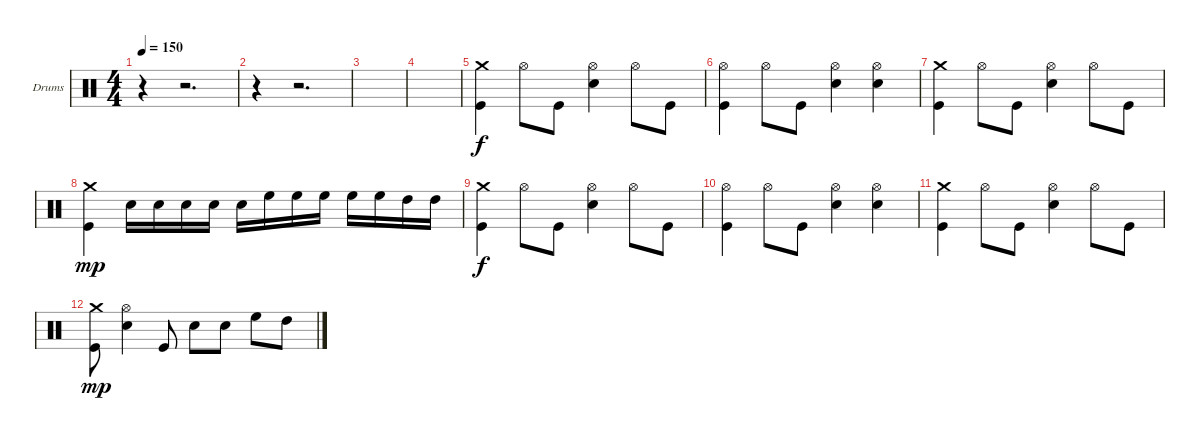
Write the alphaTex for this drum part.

\bracketExtendMode groupsimilarinstruments
\firstSystemTrackNameOrientation horizontal
\otherSystemsTrackNameOrientation horizontal
\track ("Drumkit" "Drums") {instrument percussion}
\staff {score}
\articulation defaults
\ts (4 4)
\tempo 150
\clef neutral
\ks c
r.4{dy f} r.2{d} |
r.4 r.2{d} |
|
|
("Crash medium (hit)" "Kick (hit)").4 "Hi-Hat (open)".8 "Kick (hit)".8 ("Hi-Hat (open)" "Snare (hit) 2").4 "Hi-Hat (open)".8 "Kick (hit)".8 |
("Hi-Hat (open)" "Kick (hit)").4 "Hi-Hat (open)".8 "Kick (hit)".8 ("Hi-Hat (open)" "Snare (hit) 2").4 ("Hi-Hat (open)" "Snare (hit) 2").4 |
("Crash medium (hit)" "Kick (hit)").4 "Hi-Hat (open)".8 "Kick (hit)".8 ("Hi-Hat (open)" "Snare (hit) 2").4 "Hi-Hat (open)".8 "Kick (hit)".8 |
("Crash medium (hit)" "Kick (hit)").4{dy mp} "Snare (hit) 2".16 "Snare (hit) 2".16 "Snare (hit) 2".16 "Snare (hit) 2".16 "Snare (hit) 2".16 "High Floor Tom (hit)".16 "High Floor Tom (hit)".16 "High Floor Tom (hit)".16 "High Floor Tom (hit)".16 "High Floor Tom (hit)".16 "High Tom (hit)".16 "High Tom (hit)".16 |
("Crash medium (hit)" "Kick (hit)").4{dy f} "Hi-Hat (open)".8 "Kick (hit)".8 ("Hi-Hat (open)" "Snare (hit) 2").4 "Hi-Hat (open)".8 "Kick (hit)".8 |
("Hi-Hat (open)" "Kick (hit)").4 "Hi-Hat (open)".8 "Kick (hit)".8 ("Hi-Hat (open)" "Snare (hit) 2").4 ("Hi-Hat (open)" "Snare (hit) 2").4 |
("Crash medium (hit)" "Kick (hit)").4 "Hi-Hat (open)".8 "Kick (hit)".8 ("Hi-Hat (open)" "Snare (hit) 2").4 "Hi-Hat (open)".8 "Kick (hit)".8 |
("Crash medium (hit)" "Kick (hit)").8{dy mp} ("Hi-Hat (open)" "Snare (hit) 2").4 "Kick (hit)".8 "Snare (hit) 2".8 "Snare (hit) 2".8 "High Floor Tom (hit)".8 "High Tom (hit)".8
